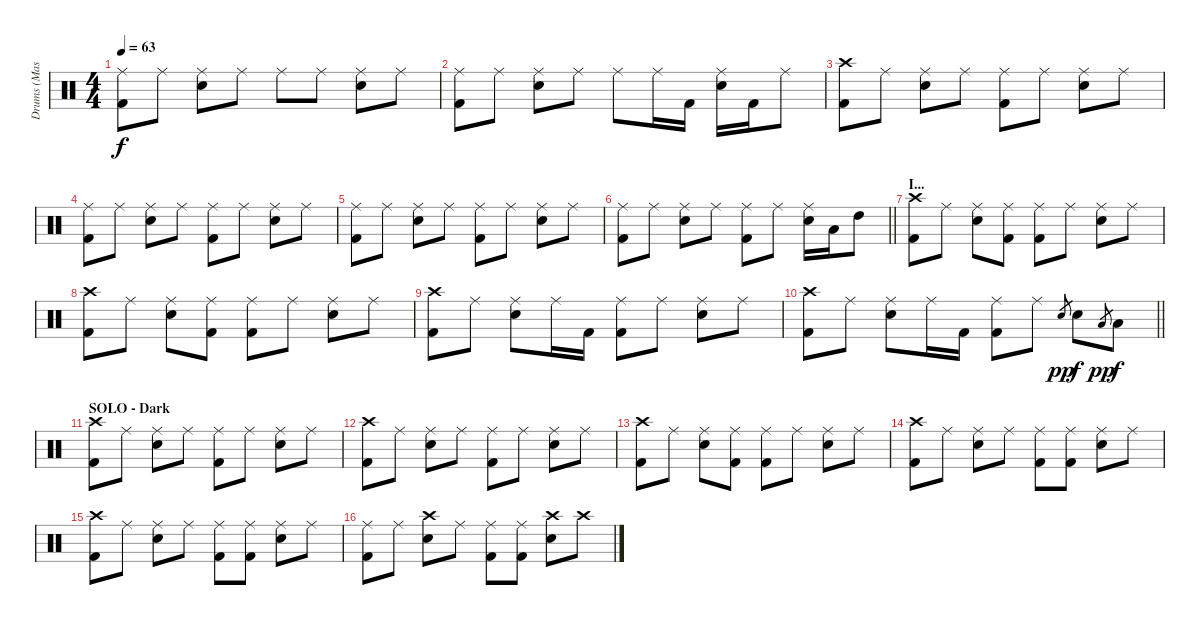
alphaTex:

\track ("Drums (Mason)" "Drums (Mas") {instrument percussion}
\staff {score}
\articulation defaults
\ts (4 4)
\tempo 63
\clef neutral
\ks c
("Ride (middle)" "Kick (hit) 2").8{dy f} "Ride (middle)".8 ("Ride (middle)" "Snare (hit) 2").8 "Ride (middle)".8 "Ride (middle)".8 "Ride (middle)".8 ("Ride (middle)" "Snare (hit) 2").8 "Ride (middle)".8 |
("Ride (middle)" "Kick (hit) 2").8 "Ride (middle)".8 ("Ride (middle)" "Snare (hit) 2").8 "Ride (middle)".8 "Ride (middle)".8 "Ride (middle)".16 "Kick (hit) 2".16 ("Ride (middle)" "Snare (hit) 2").16 "Kick (hit) 2".16 "Ride (middle)".8 |
("Crash high (hit)" "Kick (hit) 2").8 "Ride (middle)".8 ("Ride (middle)" "Snare (hit) 2").8 "Ride (middle)".8 ("Ride (middle)" "Kick (hit) 2").8 "Ride (middle)".8 ("Ride (middle)" "Snare (hit) 2").8 "Ride (middle)".8 |
("Ride (middle)" "Kick (hit) 2").8 "Ride (middle)".8 ("Ride (middle)" "Snare (hit) 2").8 "Ride (middle)".8 ("Ride (middle)" "Kick (hit) 2").8 "Ride (middle)".8 ("Ride (middle)" "Snare (hit) 2").8 "Ride (middle)".8 |
("Ride (middle)" "Kick (hit) 2").8 "Ride (middle)".8 ("Ride (middle)" "Snare (hit) 2").8 "Ride (middle)".8 ("Ride (middle)" "Kick (hit) 2").8 "Ride (middle)".8 ("Ride (middle)" "Snare (hit) 2").8 "Ride (middle)".8 |
\barLineRight lightlight
("Ride (middle)" "Kick (hit) 2").8 "Ride (middle)".8 ("Ride (middle)" "Snare (hit) 2").8 "Ride (middle)".8 ("Ride (middle)" "Kick (hit) 2").8 "Ride (middle)".8 ("Ride (middle)" "Snare (hit) 2").16 "Low Tom (hit)".16 "High Tom (hit)".8 |
\section ("" "I...")
("Crash high (hit)" "Kick (hit) 2").8 "Ride (middle)".8 ("Ride (middle)" "Snare (hit) 2").8 ("Ride (middle)" "Kick (hit) 2").8 ("Ride (middle)" "Kick (hit) 2").8 "Ride (middle)".8 ("Ride (middle)" "Snare (hit) 2").8 "Ride (middle)".8 |
("Crash high (hit)" "Kick (hit) 2").8 "Ride (middle)".8 ("Ride (middle)" "Snare (hit) 2").8 ("Ride (middle)" "Kick (hit) 2").8 ("Ride (middle)" "Kick (hit) 2").8 "Ride (middle)".8 ("Ride (middle)" "Snare (hit) 2").8 "Ride (middle)".8 |
("Crash high (hit)" "Kick (hit) 2").8 "Ride (middle)".8 ("Ride (middle)" "Snare (hit) 2").8 "Ride (middle)".16 "Kick (hit) 2".16 ("Ride (middle)" "Kick (hit) 2").8 "Ride (middle)".8 ("Ride (middle)" "Snare (hit) 2").8 "Ride (middle)".8 |
\barLineRight lightlight
("Crash high (hit)" "Kick (hit) 2").8 "Ride (middle)".8 ("Ride (middle)" "Snare (hit) 2").8 "Ride (middle)".16 "Kick (hit) 2".16 ("Ride (middle)" "Kick (hit) 2").8 "Ride (middle)".8 "Snare (hit) 2".8{gr dy pp} "Snare (hit) 2".8{dy f} "Low Tom (hit)".8{gr dy pp} "Low Tom (hit)".8{dy f} |
\section ("" "SOLO - Dark")
("Crash high (hit)" "Kick (hit) 2").8 "Ride (middle)".8 ("Ride (middle)" "Snare (hit) 2").8 "Ride (middle)".8 ("Ride (middle)" "Kick (hit) 2").8 "Ride (middle)".8 ("Ride (middle)" "Snare (hit) 2").8 "Ride (middle)".8 |
("Crash high (hit)" "Kick (hit) 2").8 "Ride (middle)".8 ("Ride (middle)" "Snare (hit) 2").8 "Ride (middle)".8 ("Ride (middle)" "Kick (hit) 2").8 "Ride (middle)".8 ("Ride (middle)" "Snare (hit) 2").8 "Ride (middle)".8 |
("Crash high (hit)" "Kick (hit) 2").8 "Ride (middle)".8 ("Ride (middle)" "Snare (hit) 2").8 ("Ride (middle)" "Kick (hit) 2").8 ("Ride (middle)" "Kick (hit) 2").8 "Ride (middle)".8 ("Ride (middle)" "Snare (hit) 2").8 "Ride (middle)".8 |
("Crash high (hit)" "Kick (hit) 2").8 "Ride (middle)".8 ("Ride (middle)" "Snare (hit) 2").8 "Ride (middle)".8 ("Ride (middle)" "Kick (hit) 2").8 ("Ride (middle)" "Kick (hit) 2").8 ("Ride (middle)" "Snare (hit) 2").8 "Ride (middle)".8 |
("Crash high (hit)" "Kick (hit) 2").8 "Ride (middle)".8 ("Ride (middle)" "Snare (hit) 2").8 "Ride (middle)".8 ("Ride (middle)" "Kick (hit) 2").8 ("Ride (middle)" "Kick (hit) 2").8 ("Ride (middle)" "Snare (hit) 2").8 "Ride (middle)".8 |
("Ride (middle)" "Kick (hit) 2").8 "Ride (middle)".8 ("Crash high (hit)" "Snare (hit) 2").8 "Ride (middle)".8 ("Ride (middle)" "Kick (hit) 2").8 ("Ride (middle)" "Kick (hit) 2").8 ("Crash high (hit)" "Snare (hit) 2").8 "Crash high (hit)".8
